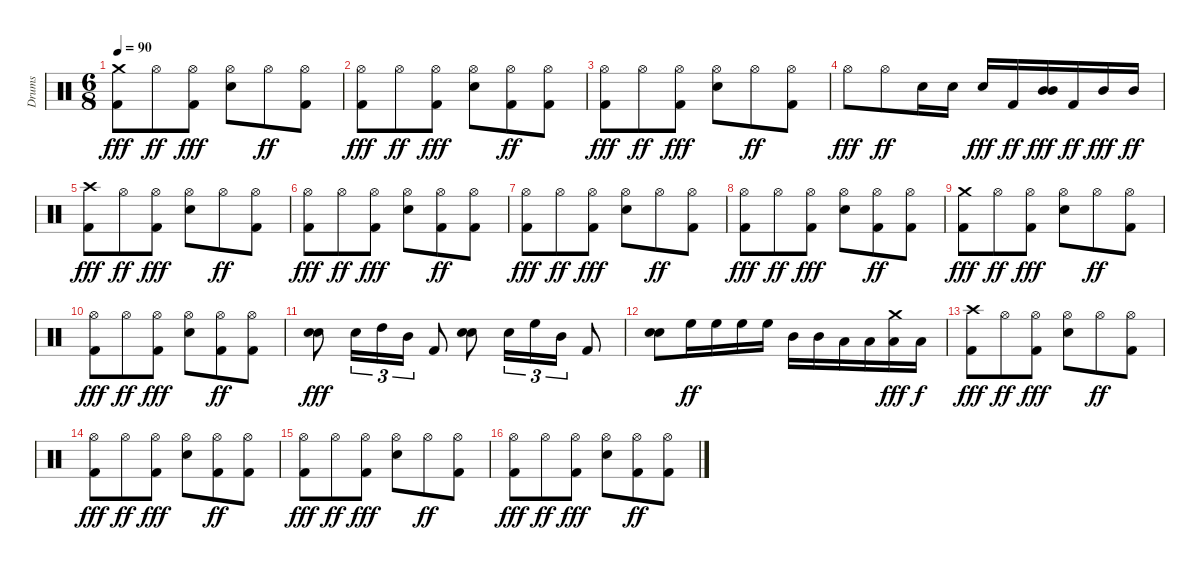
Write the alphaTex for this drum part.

\track ("Drums" "Drums") {instrument percussion}
\staff {score}
\articulation defaults
\ts (6 8)
\tempo 90
\clef neutral
\ks c
("Kick (hit) 2" "Crash medium (hit)").8{dy fff} "Hi-Hat (open)".8{dy ff} ("Hi-Hat (open)" "Kick (hit) 2").8{dy fff} ("Hi-Hat (open)" "Snare (hit) 2").8 "Hi-Hat (open)".8{dy ff} ("Hi-Hat (open)" "Kick (hit) 2").8 |
("Hi-Hat (open)" "Kick (hit) 2").8{dy fff} "Hi-Hat (open)".8{dy ff} ("Hi-Hat (open)" "Kick (hit) 2").8{dy fff} ("Hi-Hat (open)" "Snare (hit) 2").8 ("Hi-Hat (open)" "Kick (hit) 2").8{dy ff} ("Hi-Hat (open)" "Kick (hit) 2").8 |
("Hi-Hat (open)" "Kick (hit) 2").8{dy fff} "Hi-Hat (open)".8{dy ff} ("Hi-Hat (open)" "Kick (hit) 2").8{dy fff} ("Hi-Hat (open)" "Snare (hit) 2").8 "Hi-Hat (open)".8{dy ff} ("Hi-Hat (open)" "Kick (hit) 2").8 |
"Hi-Hat (open)".8{dy fff} "Hi-Hat (open)".8{dy ff} "Electric Snare (hit)".16 "Electric Snare (hit)".16 "Electric Snare (hit)".16{dy fff} "Kick (hit) 2".16{dy ff} ("Mid Tom (hit)" "Mid Tom (hit)").16{dy fff} "Kick (hit) 2".16{dy ff} "Mid Tom (hit)".16{dy fff} "Mid Tom (hit)".16{dy ff} |
("Kick (hit) 2" "Crash high (hit)").8{dy fff} "Hi-Hat (open)".8{dy ff} ("Hi-Hat (open)" "Kick (hit) 2").8{dy fff} ("Hi-Hat (open)" "Snare (hit) 2").8 "Hi-Hat (open)".8{dy ff} ("Hi-Hat (open)" "Kick (hit) 2").8 |
("Hi-Hat (open)" "Kick (hit) 2").8{dy fff} "Hi-Hat (open)".8{dy ff} ("Hi-Hat (open)" "Kick (hit) 2").8{dy fff} ("Hi-Hat (open)" "Snare (hit) 2").8 ("Hi-Hat (open)" "Kick (hit) 2").8{dy ff} ("Hi-Hat (open)" "Kick (hit) 2").8 |
("Hi-Hat (open)" "Kick (hit) 2").8{dy fff} "Hi-Hat (open)".8{dy ff} ("Hi-Hat (open)" "Kick (hit) 2").8{dy fff} ("Hi-Hat (open)" "Snare (hit) 2").8 "Hi-Hat (open)".8{dy ff} ("Hi-Hat (open)" "Kick (hit) 2").8 |
("Hi-Hat (open)" "Kick (hit) 2").8{dy fff} "Hi-Hat (open)".8{dy ff} ("Hi-Hat (open)" "Kick (hit) 2").8{dy fff} ("Hi-Hat (open)" "Snare (hit) 2").8 ("Hi-Hat (open)" "Kick (hit) 2").8{dy ff} ("Hi-Hat (open)" "Kick (hit) 2").8 |
("Kick (hit) 2" "Crash medium (hit)").8{dy fff} "Hi-Hat (open)".8{dy ff} ("Hi-Hat (open)" "Kick (hit) 2").8{dy fff} ("Hi-Hat (open)" "Snare (hit) 2").8 "Hi-Hat (open)".8{dy ff} ("Hi-Hat (open)" "Kick (hit) 2").8 |
("Hi-Hat (open)" "Kick (hit) 2").8{dy fff} "Hi-Hat (open)".8{dy ff} ("Hi-Hat (open)" "Kick (hit) 2").8{dy fff} ("Hi-Hat (open)" "Snare (hit) 2").8 ("Hi-Hat (open)" "Kick (hit) 2").8{dy ff} ("Hi-Hat (open)" "Kick (hit) 2").8 |
("Snare (hit) 2" "Snare (hit) 2").8{dy fff} "Snare (hit) 2".16{tu (3 2)} "High Tom (hit)".16{tu (3 2)} "Mid Tom (hit)".16{tu (3 2)} "Kick (hit) 2".8 ("Snare (hit) 2" "Snare (hit) 2").8 "Snare (hit) 2".16{tu (3 2)} "High Floor Tom (hit)".16{tu (3 2)} "Mid Tom (hit)".16{tu (3 2)} "Kick (hit) 2".8 |
("Electric Snare (hit)" "Electric Snare (hit)").8 "High Floor Tom (hit)".16{dy ff} "High Floor Tom (hit)".16 "High Floor Tom (hit)".16 "High Floor Tom (hit)".16 "Mid Tom (hit)".16 "Mid Tom (hit)".16 "Low Tom (hit)".16 "Low Tom (hit)".16 ("Low Tom (hit)" "Crash medium (hit)").16{dy fff} "Low Tom (hit)".16{dy f} |
("Kick (hit) 2" "Crash high (hit)").8{dy fff} "Hi-Hat (open)".8{dy ff} ("Hi-Hat (open)" "Kick (hit) 2").8{dy fff} ("Hi-Hat (open)" "Snare (hit) 2").8 "Hi-Hat (open)".8{dy ff} ("Hi-Hat (open)" "Kick (hit) 2").8 |
("Hi-Hat (open)" "Kick (hit) 2").8{dy fff} "Hi-Hat (open)".8{dy ff} ("Hi-Hat (open)" "Kick (hit) 2").8{dy fff} ("Hi-Hat (open)" "Snare (hit) 2").8 ("Hi-Hat (open)" "Kick (hit) 2").8{dy ff} ("Hi-Hat (open)" "Kick (hit) 2").8 |
("Hi-Hat (open)" "Kick (hit) 2").8{dy fff} "Hi-Hat (open)".8{dy ff} ("Hi-Hat (open)" "Kick (hit) 2").8{dy fff} ("Hi-Hat (open)" "Snare (hit) 2").8 "Hi-Hat (open)".8{dy ff} ("Hi-Hat (open)" "Kick (hit) 2").8 |
("Hi-Hat (open)" "Kick (hit) 2").8{dy fff} "Hi-Hat (open)".8{dy ff} ("Hi-Hat (open)" "Kick (hit) 2").8{dy fff} ("Hi-Hat (open)" "Snare (hit) 2").8 ("Hi-Hat (open)" "Kick (hit) 2").8{dy ff} ("Hi-Hat (open)" "Kick (hit) 2").8
